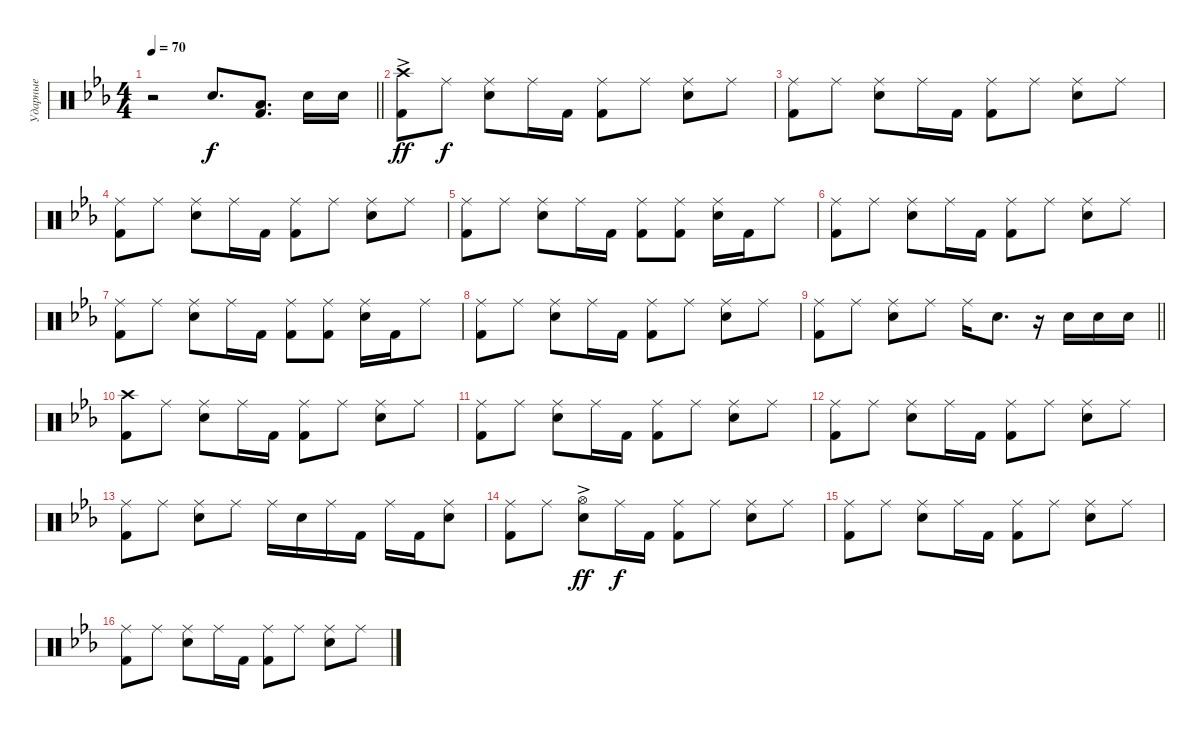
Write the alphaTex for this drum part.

\track ("Ударные" "Ударные") {instrument percussion}
\staff {score}
\articulation defaults
\ts (4 4)
\tempo 70
\clef neutral
\barLineRight lightlight
\ks eb
r.2{dy f} "Snare (hit) 2".8{d} ("Kick (hit) 2" "Low Tom (hit)").8{d} "Snare (hit) 2".16 "Snare (hit) 2".16 |
("Kick (hit) 2" "Crash high (hit)"{ac}).8{dy ff} "Ride (middle)".8{dy f} ("Snare (hit) 2" "Ride (middle)").8 "Ride (middle)".16 "Kick (hit) 2".16 ("Kick (hit) 2" "Ride (middle)").8 "Ride (middle)".8 ("Snare (hit) 2" "Ride (middle)").8 "Ride (middle)".8 |
("Kick (hit) 2" "Ride (middle)").8 "Ride (middle)".8 ("Snare (hit) 2" "Ride (middle)").8 "Ride (middle)".16 "Kick (hit) 2".16 ("Kick (hit) 2" "Ride (middle)").8 "Ride (middle)".8 ("Snare (hit) 2" "Ride (middle)").8 "Ride (middle)".8 |
("Kick (hit) 2" "Ride (middle)").8 "Ride (middle)".8 ("Snare (hit) 2" "Ride (middle)").8 "Ride (middle)".16 "Kick (hit) 2".16 ("Kick (hit) 2" "Ride (middle)").8 "Ride (middle)".8 ("Snare (hit) 2" "Ride (middle)").8 "Ride (middle)".8 |
("Kick (hit) 2" "Ride (middle)").8 "Ride (middle)".8 ("Snare (hit) 2" "Ride (middle)").8 "Ride (middle)".16 "Kick (hit) 2".16 ("Kick (hit) 2" "Ride (middle)").8 ("Kick (hit) 2" "Ride (middle)").8 ("Snare (hit) 2" "Ride (middle)").16 "Kick (hit) 2".16 "Ride (middle)".8 |
("Kick (hit) 2" "Ride (middle)").8 "Ride (middle)".8 ("Snare (hit) 2" "Ride (middle)").8 "Ride (middle)".16 "Kick (hit) 2".16 ("Kick (hit) 2" "Ride (middle)").8 "Ride (middle)".8 ("Snare (hit) 2" "Ride (middle)").8 "Ride (middle)".8 |
("Kick (hit) 2" "Ride (middle)").8 "Ride (middle)".8 ("Snare (hit) 2" "Ride (middle)").8 "Ride (middle)".16 "Kick (hit) 2".16 ("Kick (hit) 2" "Ride (middle)").8 ("Kick (hit) 2" "Ride (middle)").8 ("Snare (hit) 2" "Ride (middle)").16 "Kick (hit) 2".16 "Ride (middle)".8 |
("Kick (hit) 2" "Ride (middle)").8 "Ride (middle)".8 ("Snare (hit) 2" "Ride (middle)").8 "Ride (middle)".16 "Kick (hit) 2".16 ("Kick (hit) 2" "Ride (middle)").8 "Ride (middle)".8 ("Snare (hit) 2" "Ride (middle)").8 "Ride (middle)".8 |
\barLineRight lightlight
("Kick (hit) 2" "Ride (middle)").8 "Ride (middle)".8 ("Snare (hit) 2" "Ride (middle)").8 "Ride (middle)".8 "Ride (middle)".16 "Snare (hit) 2".8{d} r.16 "Snare (hit) 2".16 "Snare (hit) 2".16 "Snare (hit) 2".16 |
("Kick (hit) 2" "Crash high (hit)").8 "Ride (middle)".8 ("Snare (hit) 2" "Ride (middle)").8 "Ride (middle)".16 "Kick (hit) 2".16 ("Kick (hit) 2" "Ride (middle)").8 "Ride (middle)".8 ("Snare (hit) 2" "Ride (middle)").8 "Ride (middle)".8 |
("Kick (hit) 2" "Ride (middle)").8 "Ride (middle)".8 ("Snare (hit) 2" "Ride (middle)").8 "Ride (middle)".16 "Kick (hit) 2".16 ("Kick (hit) 2" "Ride (middle)").8 "Ride (middle)".8 ("Snare (hit) 2" "Ride (middle)").8 "Ride (middle)".8 |
("Kick (hit) 2" "Ride (middle)").8 "Ride (middle)".8 ("Snare (hit) 2" "Ride (middle)").8 "Ride (middle)".16 "Kick (hit) 2".16 ("Kick (hit) 2" "Ride (middle)").8 "Ride (middle)".8 ("Snare (hit) 2" "Ride (middle)").8 "Ride (middle)".8 |
("Kick (hit) 2" "Ride (middle)").8 "Ride (middle)".8 ("Snare (hit) 2" "Ride (middle)").8 "Ride (middle)".8 "Ride (middle)".16 "Snare (hit) 2".16 "Ride (middle)".16 "Kick (hit) 2".16 "Ride (middle)".16 "Kick (hit) 2".16 ("Snare (hit) 2" "Ride (middle)").8 |
("Kick (hit) 2" "Ride (middle)").8 "Ride (middle)".8 ("Snare (hit) 2" "Hi-Hat (open)"{ac}).8{dy ff} "Ride (middle)".16{dy f} "Kick (hit) 2".16 ("Kick (hit) 2" "Ride (middle)").8 "Ride (middle)".8 ("Snare (hit) 2" "Ride (middle)").8 "Ride (middle)".8 |
("Kick (hit) 2" "Ride (middle)").8 "Ride (middle)".8 ("Snare (hit) 2" "Ride (middle)").8 "Ride (middle)".16 "Kick (hit) 2".16 ("Kick (hit) 2" "Ride (middle)").8 "Ride (middle)".8 ("Snare (hit) 2" "Ride (middle)").8 "Ride (middle)".8 |
("Kick (hit) 2" "Ride (middle)").8 "Ride (middle)".8 ("Snare (hit) 2" "Ride (middle)").8 "Ride (middle)".16 "Kick (hit) 2".16 ("Kick (hit) 2" "Ride (middle)").8 "Ride (middle)".8 ("Snare (hit) 2" "Ride (middle)").8 "Ride (middle)".8
